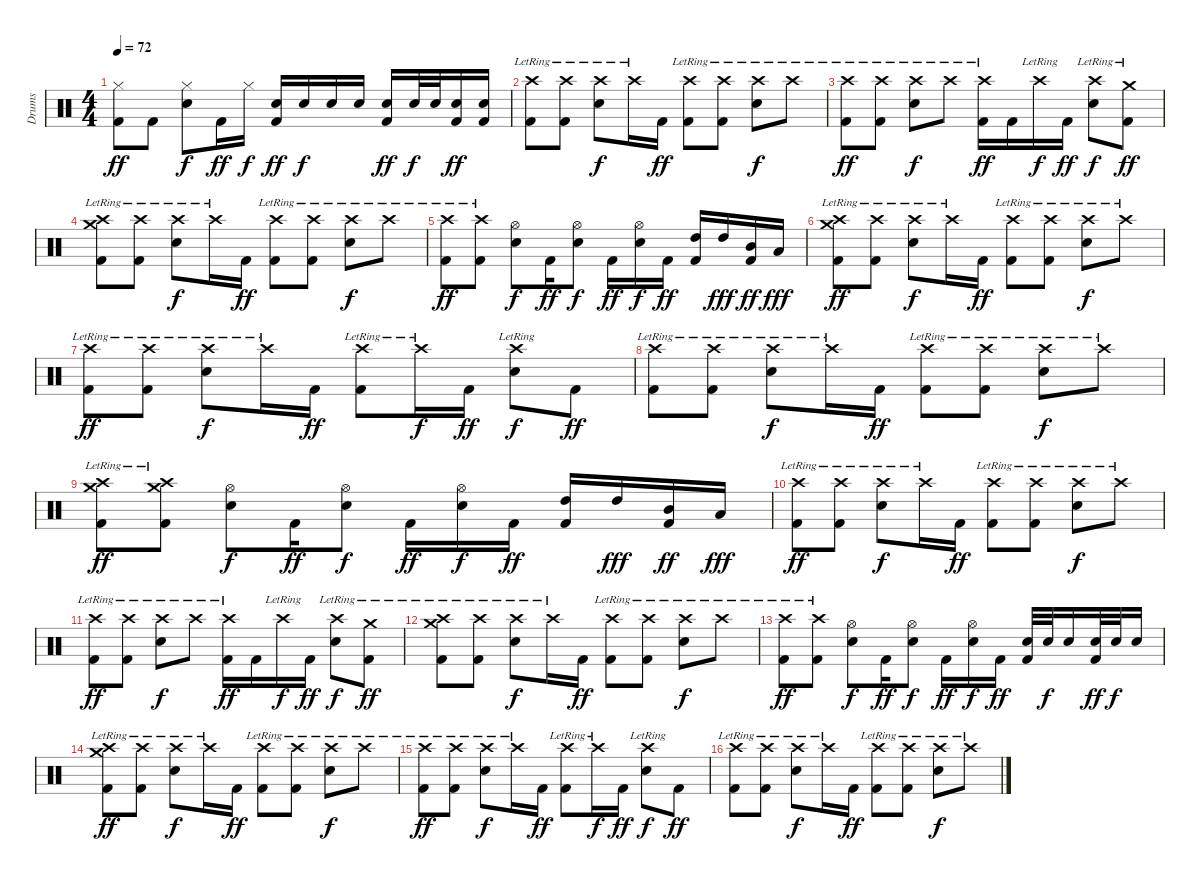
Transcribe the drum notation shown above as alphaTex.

\track ("Drums" "Drums") {instrument percussion}
\staff {score}
\articulation defaults
\ts (4 4)
\tempo 72
\clef neutral
\ks c
("Hi-Hat (closed)" "Kick (hit) 2").8{dy ff} "Kick (hit) 2".8 ("Hi-Hat (closed)" "Snare (hit) 2").8{dy f} "Kick (hit) 2".16{dy ff} "Hi-Hat (closed)".16{dy f} ("Snare (hit) 2" "Kick (hit) 2").16{dy ff} "Snare (hit) 2".16{dy f} "Snare (hit) 2".16 "Snare (hit) 2".16 ("Snare (hit) 2" "Kick (hit) 2").16{dy ff} "Snare (hit) 2".32{dy f} "Snare (hit) 2".32 ("Snare (hit) 2" "Kick (hit) 2").16{dy ff} ("Snare (hit) 2" "Kick (hit) 2").16 |
("Crash high (hit)"{lr} "Kick (hit) 2").8 ("Crash high (hit)"{lr} "Kick (hit) 2").8 ("Crash high (hit)"{lr} "Snare (hit) 2").8{dy f} "Crash high (hit)"{lr}.16 "Kick (hit) 2".16{dy ff} ("Crash high (hit)"{lr} "Kick (hit) 2").8 ("Crash high (hit)"{lr} "Kick (hit) 2").8 ("Crash high (hit)"{lr} "Snare (hit) 2").8{dy f} "Crash high (hit)"{lr}.8 |
("Crash high (hit)"{lr} "Kick (hit) 2").8{dy ff} ("Crash high (hit)"{lr} "Kick (hit) 2").8 ("Crash high (hit)"{lr} "Snare (hit) 2").8{dy f} "Crash high (hit)"{lr}.8 ("Crash high (hit)"{lr} "Kick (hit) 2").16{dy ff} "Kick (hit) 2".16 "Crash high (hit)"{lr}.16{dy f} "Kick (hit) 2".16{dy ff} ("Crash high (hit)"{lr} "Snare (hit) 2").8{dy f} ("Crash medium (hit)"{lr} "Kick (hit) 2").8{dy ff} |
("Crash medium (hit)"{lr} "Crash high (hit)" "Kick (hit) 2").8 ("Crash high (hit)"{lr} "Kick (hit) 2").8 ("Crash high (hit)"{lr} "Snare (hit) 2").8{dy f} "Crash high (hit)"{lr}.16 "Kick (hit) 2".16{dy ff} ("Crash high (hit)"{lr} "Kick (hit) 2").8 ("Crash high (hit)"{lr} "Kick (hit) 2").8 ("Crash high (hit)"{lr} "Snare (hit) 2").8{dy f} "Crash high (hit)"{lr}.8 |
("Crash high (hit)"{lr} "Kick (hit) 2").8{dy ff} ("Crash high (hit)"{lr} "Kick (hit) 2").8 ("Hi-Hat (open)" "Snare (hit) 2").8{dy f} "Kick (hit) 2".16{dy ff} ("Hi-Hat (open)" "Snare (hit) 2").8{dy f} "Kick (hit) 2".16{dy ff} ("Hi-Hat (open)" "Snare (hit) 2").16{dy f} "Kick (hit) 2".16{dy ff} ("High Tom (hit)" "Kick (hit) 2").16 "High Tom (hit)".16{dy fff} ("Mid Tom (hit)" "Kick (hit) 2").16{dy ff} "Low Tom (hit)".16{dy fff} |
("Crash medium (hit)"{lr} "Crash high (hit)" "Kick (hit) 2").8{dy ff} ("Crash high (hit)"{lr} "Kick (hit) 2").8 ("Crash high (hit)"{lr} "Snare (hit) 2").8{dy f} "Crash high (hit)"{lr}.16 "Kick (hit) 2".16{dy ff} ("Crash high (hit)"{lr} "Kick (hit) 2").8 ("Crash high (hit)"{lr} "Kick (hit) 2").8 ("Crash high (hit)"{lr} "Snare (hit) 2").8{dy f} "Crash high (hit)"{lr}.8 |
("Crash high (hit)"{lr} "Kick (hit) 2").8{dy ff} ("Crash high (hit)"{lr} "Kick (hit) 2").8 ("Crash high (hit)"{lr} "Snare (hit) 2").8{dy f} "Crash high (hit)"{lr}.16 "Kick (hit) 2".16{dy ff} ("Crash high (hit)"{lr} "Kick (hit) 2").8 "Crash high (hit)"{lr}.16{dy f} "Kick (hit) 2".16{dy ff} ("Crash high (hit)"{lr} "Snare (hit) 2").8{dy f} "Kick (hit) 2".8{dy ff} |
("Crash high (hit)"{lr} "Kick (hit) 2").8 ("Crash high (hit)"{lr} "Kick (hit) 2").8 ("Crash high (hit)"{lr} "Snare (hit) 2").8{dy f} "Crash high (hit)"{lr}.16 "Kick (hit) 2".16{dy ff} ("Crash high (hit)"{lr} "Kick (hit) 2").8 ("Crash high (hit)"{lr} "Kick (hit) 2").8 ("Crash high (hit)"{lr} "Snare (hit) 2").8{dy f} "Crash high (hit)"{lr}.8 |
("Crash medium (hit)"{lr} "Crash high (hit)" "Kick (hit) 2").8{dy ff} ("Crash medium (hit)"{lr} "Crash high (hit)" "Kick (hit) 2").8 ("Hi-Hat (open)" "Snare (hit) 2").8{dy f} "Kick (hit) 2".16{dy ff} ("Hi-Hat (open)" "Snare (hit) 2").8{dy f} "Kick (hit) 2".16{dy ff} ("Hi-Hat (open)" "Snare (hit) 2").16{dy f} "Kick (hit) 2".16{dy ff} ("High Tom (hit)" "Kick (hit) 2").16 "High Tom (hit)".16{dy fff} ("Mid Tom (hit)" "Kick (hit) 2").16{dy ff} "Low Tom (hit)".16{dy fff} |
("Crash high (hit)"{lr} "Kick (hit) 2").8{dy ff} ("Crash high (hit)"{lr} "Kick (hit) 2").8 ("Crash high (hit)"{lr} "Snare (hit) 2").8{dy f} "Crash high (hit)"{lr}.16 "Kick (hit) 2".16{dy ff} ("Crash high (hit)"{lr} "Kick (hit) 2").8 ("Crash high (hit)"{lr} "Kick (hit) 2").8 ("Crash high (hit)"{lr} "Snare (hit) 2").8{dy f} "Crash high (hit)"{lr}.8 |
("Crash high (hit)"{lr} "Kick (hit) 2").8{dy ff} ("Crash high (hit)"{lr} "Kick (hit) 2").8 ("Crash high (hit)"{lr} "Snare (hit) 2").8{dy f} "Crash high (hit)"{lr}.8 ("Crash high (hit)"{lr} "Kick (hit) 2").16{dy ff} "Kick (hit) 2".16 "Crash high (hit)"{lr}.16{dy f} "Kick (hit) 2".16{dy ff} ("Crash high (hit)"{lr} "Snare (hit) 2").8{dy f} ("Crash medium (hit)"{lr} "Kick (hit) 2").8{dy ff} |
("Crash medium (hit)"{lr} "Crash high (hit)" "Kick (hit) 2").8 ("Crash high (hit)"{lr} "Kick (hit) 2").8 ("Crash high (hit)"{lr} "Snare (hit) 2").8{dy f} "Crash high (hit)"{lr}.16 "Kick (hit) 2".16{dy ff} ("Crash high (hit)"{lr} "Kick (hit) 2").8 ("Crash high (hit)"{lr} "Kick (hit) 2").8 ("Crash high (hit)"{lr} "Snare (hit) 2").8{dy f} "Crash high (hit)"{lr}.8 |
("Crash high (hit)"{lr} "Kick (hit) 2").8{dy ff} ("Crash high (hit)"{lr} "Kick (hit) 2").8 ("Hi-Hat (open)" "Snare (hit) 2").8{dy f} "Kick (hit) 2".16{dy ff} ("Hi-Hat (open)" "Snare (hit) 2").8{dy f} "Kick (hit) 2".16{dy ff} ("Hi-Hat (open)" "Snare (hit) 2").16{dy f} "Kick (hit) 2".16{dy ff} ("Snare (hit) 2" "Kick (hit) 2").32 "Snare (hit) 2".32{dy f} "Snare (hit) 2".16 ("Snare (hit) 2" "Kick (hit) 2").32{dy ff} "Snare (hit) 2".32{dy f} "Snare (hit) 2".16 |
("Crash medium (hit)"{lr} "Crash high (hit)" "Kick (hit) 2").8{dy ff} ("Crash high (hit)"{lr} "Kick (hit) 2").8 ("Crash high (hit)"{lr} "Snare (hit) 2").8{dy f} "Crash high (hit)"{lr}.16 "Kick (hit) 2".16{dy ff} ("Crash high (hit)"{lr} "Kick (hit) 2").8 ("Crash high (hit)"{lr} "Kick (hit) 2").8 ("Crash high (hit)"{lr} "Snare (hit) 2").8{dy f} "Crash high (hit)"{lr}.8 |
("Crash high (hit)"{lr} "Kick (hit) 2").8{dy ff} ("Crash high (hit)"{lr} "Kick (hit) 2").8 ("Crash high (hit)"{lr} "Snare (hit) 2").8{dy f} "Crash high (hit)"{lr}.16 "Kick (hit) 2".16{dy ff} ("Crash high (hit)"{lr} "Kick (hit) 2").8 "Crash high (hit)"{lr}.16{dy f} "Kick (hit) 2".16{dy ff} ("Crash high (hit)"{lr} "Snare (hit) 2").8{dy f} "Kick (hit) 2".8{dy ff} |
("Crash high (hit)"{lr} "Kick (hit) 2").8 ("Crash high (hit)"{lr} "Kick (hit) 2").8 ("Crash high (hit)"{lr} "Snare (hit) 2").8{dy f} "Crash high (hit)"{lr}.16 "Kick (hit) 2".16{dy ff} ("Crash high (hit)"{lr} "Kick (hit) 2").8 ("Crash high (hit)"{lr} "Kick (hit) 2").8 ("Crash high (hit)"{lr} "Snare (hit) 2").8{dy f} "Crash high (hit)"{lr}.8
